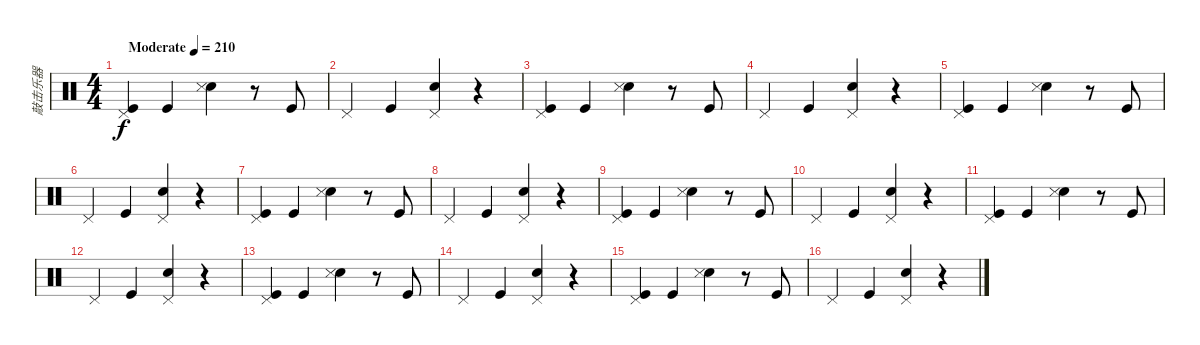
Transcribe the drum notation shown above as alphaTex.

\track ("敲击乐器" "敲击乐器") {instrument percussion}
\staff {score}
\articulation defaults
\ts (4 4)
\tempo (210 "Moderate")
\clef neutral
\ks c
("Pedal Hi-Hat (hit)" "Kick (hit)").4{dy f volume 5} "Kick (hit)".4 ("Snare (hit) 2" "Snare (side stick) 3").4 r.8 "Kick (hit)".8 |
"Pedal Hi-Hat (hit)".4 "Kick (hit)".4 ("Snare (hit) 2" "Pedal Hi-Hat (hit)").4 r.4 |
("Pedal Hi-Hat (hit)" "Kick (hit)").4 "Kick (hit)".4 ("Snare (hit) 2" "Snare (side stick) 3").4 r.8 "Kick (hit)".8 |
"Pedal Hi-Hat (hit)".4 "Kick (hit)".4 ("Snare (hit) 2" "Pedal Hi-Hat (hit)").4 r.4 |
("Pedal Hi-Hat (hit)" "Kick (hit)").4 "Kick (hit)".4 ("Snare (hit) 2" "Snare (side stick) 3").4 r.8 "Kick (hit)".8 |
"Pedal Hi-Hat (hit)".4 "Kick (hit)".4 ("Snare (hit) 2" "Pedal Hi-Hat (hit)").4 r.4 |
("Pedal Hi-Hat (hit)" "Kick (hit)").4 "Kick (hit)".4 ("Snare (hit) 2" "Snare (side stick) 3").4 r.8 "Kick (hit)".8 |
"Pedal Hi-Hat (hit)".4 "Kick (hit)".4 ("Snare (hit) 2" "Pedal Hi-Hat (hit)").4 r.4 |
("Pedal Hi-Hat (hit)" "Kick (hit)").4 "Kick (hit)".4 ("Snare (hit) 2" "Snare (side stick) 3").4 r.8 "Kick (hit)".8 |
"Pedal Hi-Hat (hit)".4 "Kick (hit)".4 ("Snare (hit) 2" "Pedal Hi-Hat (hit)").4 r.4 |
("Pedal Hi-Hat (hit)" "Kick (hit)").4 "Kick (hit)".4 ("Snare (hit) 2" "Snare (side stick) 3").4 r.8 "Kick (hit)".8 |
"Pedal Hi-Hat (hit)".4 "Kick (hit)".4 ("Snare (hit) 2" "Pedal Hi-Hat (hit)").4 r.4 |
("Pedal Hi-Hat (hit)" "Kick (hit)").4 "Kick (hit)".4 ("Snare (hit) 2" "Snare (side stick) 3").4 r.8 "Kick (hit)".8 |
"Pedal Hi-Hat (hit)".4 "Kick (hit)".4 ("Snare (hit) 2" "Pedal Hi-Hat (hit)").4 r.4 |
("Pedal Hi-Hat (hit)" "Kick (hit)").4 "Kick (hit)".4 ("Snare (hit) 2" "Snare (side stick) 3").4 r.8 "Kick (hit)".8 |
"Pedal Hi-Hat (hit)".4 "Kick (hit)".4 ("Snare (hit) 2" "Pedal Hi-Hat (hit)").4 r.4
